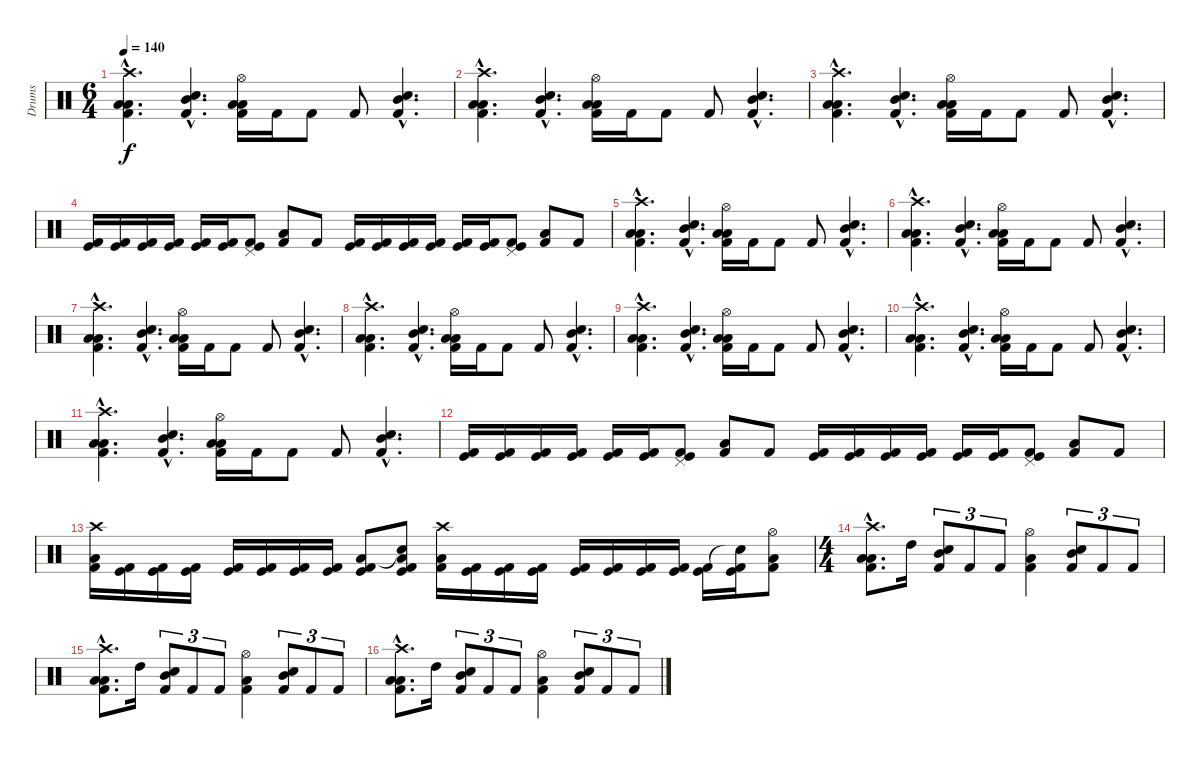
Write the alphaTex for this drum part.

\track ("Drums" "Drums") {instrument percussion}
\staff {score}
\articulation defaults
\ts (6 4)
\tempo 140
\clef neutral
\ks c
("Crash high (hit)"{hac} "Low Tom (hit)"{hac} "Low Tom (hit)"{hac} "Kick (hit) 2"{hac}).4{d dy f} ("Snare (hit) 2"{hac} "Mid Tom (hit)"{hac} "Kick (hit) 2"{hac}).4{d} ("Hi-Hat (open)" "Low Tom (hit)" "Low Tom (hit)" "Kick (hit) 2").16 "Kick (hit) 2".16 "Kick (hit) 2".8 "Kick (hit) 2".8 ("Snare (hit) 2"{hac} "Mid Tom (hit)"{hac} "Kick (hit) 2"{hac}).4{d} |
("Crash high (hit)"{hac} "Low Tom (hit)"{hac} "Low Tom (hit)"{hac} "Kick (hit) 2"{hac}).4{d} ("Snare (hit) 2"{hac} "Mid Tom (hit)"{hac} "Kick (hit) 2"{hac}).4{d} ("Hi-Hat (open)" "Low Tom (hit)" "Low Tom (hit)" "Kick (hit) 2").16 "Kick (hit) 2".16 "Kick (hit) 2".8 "Kick (hit) 2".8 ("Snare (hit) 2"{hac} "Mid Tom (hit)"{hac} "Kick (hit) 2"{hac}).4{d} |
("Crash high (hit)"{hac} "Low Tom (hit)"{hac} "Low Tom (hit)"{hac} "Kick (hit) 2"{hac}).4{d} ("Snare (hit) 2"{hac} "Mid Tom (hit)"{hac} "Kick (hit) 2"{hac}).4{d} ("Hi-Hat (open)" "Low Tom (hit)" "Low Tom (hit)" "Kick (hit) 2").16 "Kick (hit) 2".16 "Kick (hit) 2".8 "Kick (hit) 2".8 ("Snare (hit) 2"{hac} "Mid Tom (hit)"{hac} "Kick (hit) 2"{hac}).4{d} |
("Kick (hit)" "Kick (hit) 2").16 ("Kick (hit)" "Kick (hit) 2").16 ("Kick (hit)" "Kick (hit) 2").16 ("Kick (hit)" "Kick (hit) 2").16 ("Kick (hit)" "Kick (hit) 2").16 ("Kick (hit)" "Kick (hit) 2").16 ("Pedal Hi-Hat (hit)" "Kick (hit)" "Kick (hit) 2").8 ("Low Tom (hit)" "Kick (hit) 2").8 "Kick (hit) 2".8 ("Kick (hit)" "Kick (hit) 2").16 ("Kick (hit)" "Kick (hit) 2").16 ("Kick (hit)" "Kick (hit) 2").16 ("Kick (hit)" "Kick (hit) 2").16 ("Kick (hit)" "Kick (hit) 2").16 ("Kick (hit)" "Kick (hit) 2").16 ("Pedal Hi-Hat (hit)" "Kick (hit)" "Kick (hit) 2").8 ("Low Tom (hit)" "Kick (hit) 2").8 "Kick (hit) 2".8 |
("Crash high (hit)"{hac} "Low Tom (hit)"{hac} "Low Tom (hit)"{hac} "Kick (hit) 2"{hac}).4{d} ("Snare (hit) 2"{hac} "Mid Tom (hit)"{hac} "Kick (hit) 2"{hac}).4{d} ("Hi-Hat (open)" "Low Tom (hit)" "Low Tom (hit)" "Kick (hit) 2").16 "Kick (hit) 2".16 "Kick (hit) 2".8 "Kick (hit) 2".8 ("Snare (hit) 2"{hac} "Mid Tom (hit)"{hac} "Kick (hit) 2"{hac}).4{d} |
("Crash high (hit)"{hac} "Low Tom (hit)"{hac} "Low Tom (hit)"{hac} "Kick (hit) 2"{hac}).4{d} ("Snare (hit) 2"{hac} "Mid Tom (hit)"{hac} "Kick (hit) 2"{hac}).4{d} ("Hi-Hat (open)" "Low Tom (hit)" "Low Tom (hit)" "Kick (hit) 2").16 "Kick (hit) 2".16 "Kick (hit) 2".8 "Kick (hit) 2".8 ("Snare (hit) 2"{hac} "Mid Tom (hit)"{hac} "Kick (hit) 2"{hac}).4{d} |
("Crash high (hit)"{hac} "Low Tom (hit)"{hac} "Low Tom (hit)"{hac} "Kick (hit) 2"{hac}).4{d} ("Snare (hit) 2"{hac} "Mid Tom (hit)"{hac} "Kick (hit) 2"{hac}).4{d} ("Hi-Hat (open)" "Low Tom (hit)" "Low Tom (hit)" "Kick (hit) 2").16 "Kick (hit) 2".16 "Kick (hit) 2".8 "Kick (hit) 2".8 ("Snare (hit) 2"{hac} "Mid Tom (hit)"{hac} "Kick (hit) 2"{hac}).4{d} |
("Crash high (hit)"{hac} "Low Tom (hit)"{hac} "Low Tom (hit)"{hac} "Kick (hit) 2"{hac}).4{d} ("Snare (hit) 2"{hac} "Mid Tom (hit)"{hac} "Kick (hit) 2"{hac}).4{d} ("Hi-Hat (open)" "Low Tom (hit)" "Low Tom (hit)" "Kick (hit) 2").16 "Kick (hit) 2".16 "Kick (hit) 2".8 "Kick (hit) 2".8 ("Snare (hit) 2"{hac} "Mid Tom (hit)"{hac} "Kick (hit) 2"{hac}).4{d} |
("Crash high (hit)"{hac} "Low Tom (hit)"{hac} "Low Tom (hit)"{hac} "Kick (hit) 2"{hac}).4{d} ("Snare (hit) 2"{hac} "Mid Tom (hit)"{hac} "Kick (hit) 2"{hac}).4{d} ("Hi-Hat (open)" "Low Tom (hit)" "Low Tom (hit)" "Kick (hit) 2").16 "Kick (hit) 2".16 "Kick (hit) 2".8 "Kick (hit) 2".8 ("Snare (hit) 2"{hac} "Mid Tom (hit)"{hac} "Kick (hit) 2"{hac}).4{d} |
("Crash high (hit)"{hac} "Low Tom (hit)"{hac} "Low Tom (hit)"{hac} "Kick (hit) 2"{hac}).4{d} ("Snare (hit) 2"{hac} "Mid Tom (hit)"{hac} "Kick (hit) 2"{hac}).4{d} ("Hi-Hat (open)" "Low Tom (hit)" "Low Tom (hit)" "Kick (hit) 2").16 "Kick (hit) 2".16 "Kick (hit) 2".8 "Kick (hit) 2".8 ("Snare (hit) 2"{hac} "Mid Tom (hit)"{hac} "Kick (hit) 2"{hac}).4{d} |
("Crash high (hit)"{hac} "Low Tom (hit)"{hac} "Low Tom (hit)"{hac} "Kick (hit) 2"{hac}).4{d} ("Snare (hit) 2"{hac} "Mid Tom (hit)"{hac} "Kick (hit) 2"{hac}).4{d} ("Hi-Hat (open)" "Low Tom (hit)" "Low Tom (hit)" "Kick (hit) 2").16 "Kick (hit) 2".16 "Kick (hit) 2".8 "Kick (hit) 2".8 ("Snare (hit) 2"{hac} "Mid Tom (hit)"{hac} "Kick (hit) 2"{hac}).4{d} |
("Kick (hit)" "Kick (hit) 2").16 ("Kick (hit)" "Kick (hit) 2").16 ("Kick (hit)" "Kick (hit) 2").16 ("Kick (hit)" "Kick (hit) 2").16 ("Kick (hit)" "Kick (hit) 2").16 ("Kick (hit)" "Kick (hit) 2").16 ("Pedal Hi-Hat (hit)" "Kick (hit)" "Kick (hit) 2").8 ("Low Tom (hit)" "Kick (hit) 2").8 "Kick (hit) 2".8 ("Kick (hit)" "Kick (hit) 2").16 ("Kick (hit)" "Kick (hit) 2").16 ("Kick (hit)" "Kick (hit) 2").16 ("Kick (hit)" "Kick (hit) 2").16 ("Kick (hit)" "Kick (hit) 2").16 ("Kick (hit)" "Kick (hit) 2").16 ("Pedal Hi-Hat (hit)" "Kick (hit)" "Kick (hit) 2").8 ("Low Tom (hit)" "Kick (hit) 2").8 "Kick (hit) 2".8 |
("Crash high (hit)" "Low Tom (hit)" "Kick (hit) 2").16 ("Kick (hit)" "Kick (hit) 2").16 ("Kick (hit)" "Kick (hit) 2").16 ("Kick (hit)" "Kick (hit) 2").16 ("Kick (hit)" "Kick (hit) 2").16 ("Kick (hit)" "Kick (hit) 2").16 ("Kick (hit)" "Kick (hit) 2").16 ("Kick (hit)" "Kick (hit) 2").16 ("Low Tom (hit)" "Kick (hit)" "Kick (hit) 2").8 ("Snare (hit)"{t} "Low Tom (hit)" "Kick (hit)" "Kick (hit) 2").8 ("Crash high (hit)" "Low Tom (hit)" "Kick (hit) 2").16 ("Kick (hit)" "Kick (hit) 2").16 ("Kick (hit)" "Kick (hit) 2").16 ("Kick (hit)" "Kick (hit) 2").16 ("Kick (hit)" "Kick (hit) 2").16 ("Kick (hit)" "Kick (hit) 2").16 ("Kick (hit)" "Kick (hit) 2").16 ("Kick (hit)" "Kick (hit) 2").16 ("Kick (hit)" "Kick (hit) 2").16 ("Snare (hit)"{t} "Kick (hit)" "Kick (hit) 2").16 ("Hi-Hat (open)" "Low Tom (hit)" "Kick (hit) 2").8 |
\ts (4 4)
("Crash high (hit)"{hac} "Low Tom (hit)"{hac} "Low Tom (hit)"{hac} "Kick (hit) 2"{hac}).8{d} "High Tom (hit)".16 ("Mid Tom (hit)" "Snare (hit) 2" "Kick (hit) 2").8{tu (3 2)} "Kick (hit) 2".8{tu (3 2)} "Kick (hit) 2".8{tu (3 2)} ("Hi-Hat (open)" "Low Tom (hit)" "Kick (hit) 2").4 ("Mid Tom (hit)" "Snare (hit) 2" "Kick (hit) 2").8{tu (3 2)} "Kick (hit) 2".8{tu (3 2)} "Kick (hit) 2".8{tu (3 2)} |
("Crash high (hit)"{hac} "Low Tom (hit)"{hac} "Low Tom (hit)"{hac} "Kick (hit) 2"{hac}).8{d} "High Tom (hit)".16 ("Mid Tom (hit)" "Snare (hit) 2" "Kick (hit) 2").8{tu (3 2)} "Kick (hit) 2".8{tu (3 2)} "Kick (hit) 2".8{tu (3 2)} ("Hi-Hat (open)" "Low Tom (hit)" "Kick (hit) 2").4 ("Mid Tom (hit)" "Snare (hit) 2" "Kick (hit) 2").8{tu (3 2)} "Kick (hit) 2".8{tu (3 2)} "Kick (hit) 2".8{tu (3 2)} |
("Crash high (hit)"{hac} "Low Tom (hit)"{hac} "Low Tom (hit)"{hac} "Kick (hit) 2"{hac}).8{d} "High Tom (hit)".16 ("Mid Tom (hit)" "Snare (hit) 2" "Kick (hit) 2").8{tu (3 2)} "Kick (hit) 2".8{tu (3 2)} "Kick (hit) 2".8{tu (3 2)} ("Hi-Hat (open)" "Low Tom (hit)" "Kick (hit) 2").4 ("Mid Tom (hit)" "Snare (hit) 2" "Kick (hit) 2").8{tu (3 2)} "Kick (hit) 2".8{tu (3 2)} "Kick (hit) 2".8{tu (3 2)}
